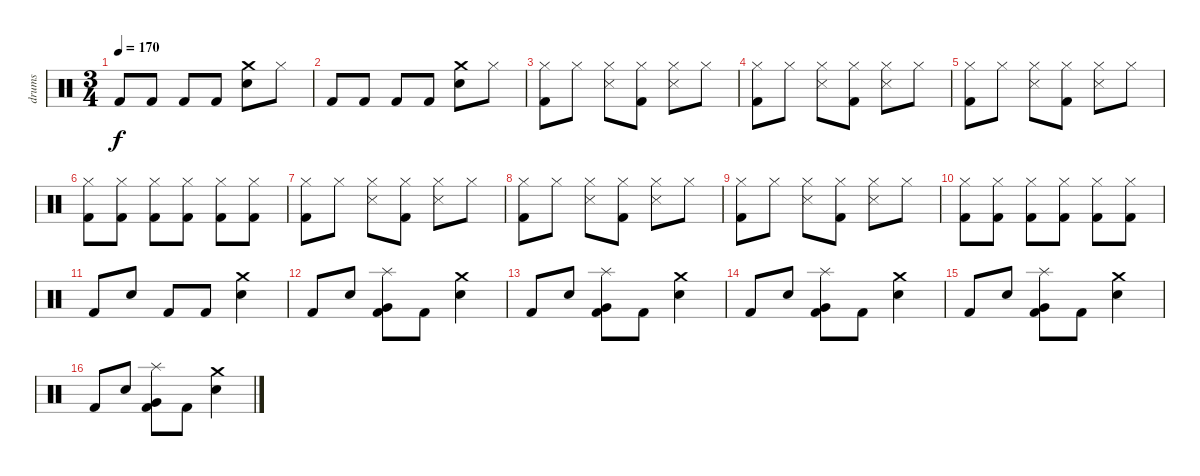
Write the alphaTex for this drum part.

\track ("drums" "drums") {instrument percussion}
\staff {score}
\articulation defaults
\ts (3 4)
\tempo 170
\clef neutral
\ks c "Kick (hit) 2".8{dy f} "Kick (hit) 2".8 "Kick (hit) 2".8 "Kick (hit) 2".8
("Snare (hit) 2" "Crash medium (hit)").8 "Hi-Hat (closed)".8 |
"Kick (hit) 2".8 "Kick (hit) 2".8 "Kick (hit) 2".8 "Kick (hit) 2".8 ("Snare (hit) 2" "Crash medium (hit)").8 "Hi-Hat (closed)".8 |
("Kick (hit) 2" "Hi-Hat (closed)").8 "Hi-Hat (closed)".8 ("Snare (side stick) 3" "Hi-Hat (closed)").8 ("Kick (hit) 2" "Hi-Hat (closed)").8 ("Snare (side stick) 3" "Hi-Hat (closed)").8 "Hi-Hat (closed)".8 |
("Kick (hit) 2" "Hi-Hat (closed)").8 "Hi-Hat (closed)".8 ("Snare (side stick) 3" "Hi-Hat (closed)").8 ("Kick (hit) 2" "Hi-Hat (closed)").8 ("Snare (side stick) 3" "Hi-Hat (closed)").8 "Hi-Hat (closed)".8 |
("Kick (hit) 2" "Hi-Hat (closed)").8 "Hi-Hat (closed)".8 ("Snare (side stick) 3" "Hi-Hat (closed)").8 ("Kick (hit) 2" "Hi-Hat (closed)").8 ("Snare (side stick) 3" "Hi-Hat (closed)").8 "Hi-Hat (closed)".8 |
("Kick (hit) 2" "Hi-Hat (closed)").8 ("Kick (hit) 2" "Hi-Hat (closed)").8 ("Kick (hit) 2" "Hi-Hat (closed)").8 ("Kick (hit) 2" "Hi-Hat (closed)").8 ("Kick (hit) 2" "Hi-Hat (closed)").8 ("Kick (hit) 2" "Hi-Hat (closed)").8 |
("Kick (hit) 2" "Hi-Hat (closed)").8 "Hi-Hat (closed)".8 ("Snare (side stick) 3" "Hi-Hat (closed)").8 ("Kick (hit) 2" "Hi-Hat (closed)").8 ("Snare (side stick) 3" "Hi-Hat (closed)").8 "Hi-Hat (closed)".8 |
("Kick (hit) 2" "Hi-Hat (closed)").8 "Hi-Hat (closed)".8 ("Snare (side stick) 3" "Hi-Hat (closed)").8 ("Kick (hit) 2" "Hi-Hat (closed)").8 ("Snare (side stick) 3" "Hi-Hat (closed)").8 "Hi-Hat (closed)".8 |
("Kick (hit) 2" "Hi-Hat (closed)").8 "Hi-Hat (closed)".8 ("Snare (side stick) 3" "Hi-Hat (closed)").8 ("Kick (hit) 2" "Hi-Hat (closed)").8 ("Snare (side stick) 3" "Hi-Hat (closed)").8 "Hi-Hat (closed)".8 |
("Kick (hit) 2" "Hi-Hat (closed)").8 ("Kick (hit) 2" "Hi-Hat (closed)").8 ("Kick (hit) 2" "Hi-Hat (closed)").8 ("Kick (hit) 2" "Hi-Hat (closed)").8 ("Kick (hit) 2" "Hi-Hat (closed)").8 ("Kick (hit) 2" "Hi-Hat (closed)").8 |
"Kick (hit) 2".8 "Snare (hit) 2".8 "Kick (hit) 2".8 "Kick (hit) 2".8 ("Snare (hit) 2" "Crash medium (hit)").4 |
"Kick (hit) 2".8 "Snare (hit) 2".8 ("Kick (hit) 2" "Very Low Tom (hit)" "Splash (hit)").8 "Kick (hit) 2".8 ("Snare (hit) 2" "Crash medium (hit)").4 |
"Kick (hit) 2".8 "Snare (hit) 2".8 ("Kick (hit) 2" "Very Low Tom (hit)" "Splash (hit)").8 "Kick (hit) 2".8 ("Snare (hit) 2" "Crash medium (hit)").4 |
"Kick (hit) 2".8 "Snare (hit) 2".8 ("Kick (hit) 2" "Very Low Tom (hit)" "Splash (hit)").8 "Kick (hit) 2".8 ("Snare (hit) 2" "Crash medium (hit)").4 |
"Kick (hit) 2".8 "Snare (hit) 2".8 ("Kick (hit) 2" "Very Low Tom (hit)" "Splash (hit)").8 "Kick (hit) 2".8 ("Snare (hit) 2" "Crash medium (hit)").4 |
"Kick (hit) 2".8 "Snare (hit) 2".8 ("Kick (hit) 2" "Very Low Tom (hit)" "Splash (hit)").8 "Kick (hit) 2".8 ("Snare (hit) 2" "Crash medium (hit)").4
